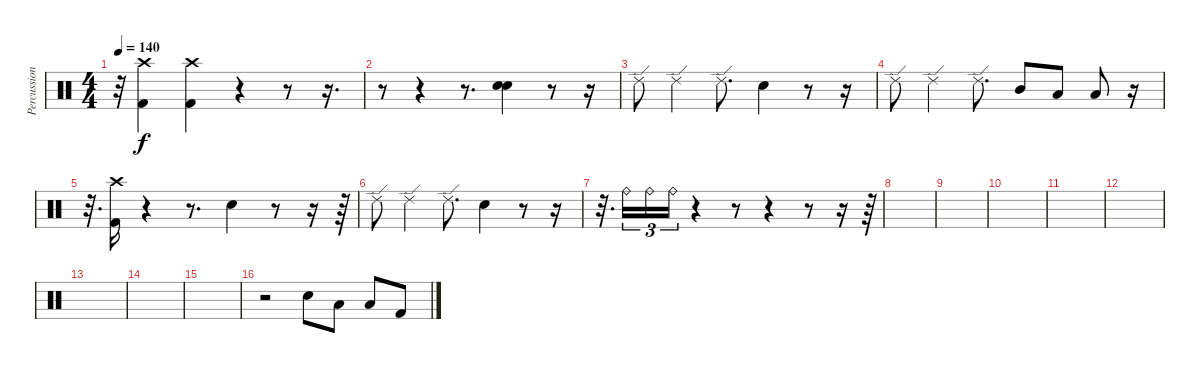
\track ("Percussion" "Percussion") {instrument percussion}
\staff {score}
\articulation defaults
\ts (4 4)
\tempo 140
\clef neutral
\ks c
r.32{dy f} ("Crash high (hit)" "Kick (hit) 2").4 ("Crash high (hit)" "Kick (hit) 2").4 r.4 r.8 r.16{d} |
r.8 r.4 r.8{d} ("Snare (hit) 2" "Snare (hit) 2").4 r.8 r.16 |
"Ride (edge) 2".8 "Ride (edge) 2".4 "Ride (edge) 2".8{d} "Snare (hit) 2".4 r.8 r.16 |
"Ride (edge) 2".8 "Ride (edge) 2".4 "Ride (edge) 2".8{d} "Mid Tom (hit)".8 "Low Tom (hit)".8 "Low Tom (hit)".8 r.16 |
r.32{d} ("Crash high (hit)" "Kick (hit) 2").16 r.4 r.8{d} "Snare (hit) 2".4 r.8 r.16 r.64 |
"Ride (edge) 2".8 "Ride (edge) 2".4 "Ride (edge) 2".8{d} "Snare (hit) 2".4 r.8 r.16 |
r.32{d} "Ride (bell)".16{tu (3 2)} "Ride (bell)".16{tu (3 2)} "Ride (bell)".16{tu (3 2)} r.4 r.8 r.4 r.8 r.16 r.64 |
|
|
|
|
|
|
|
|
r.2 "Snare (hit) 2".8 "Low Tom (hit)".8 "Low Tom (hit)".8 "Kick (hit) 2".8
